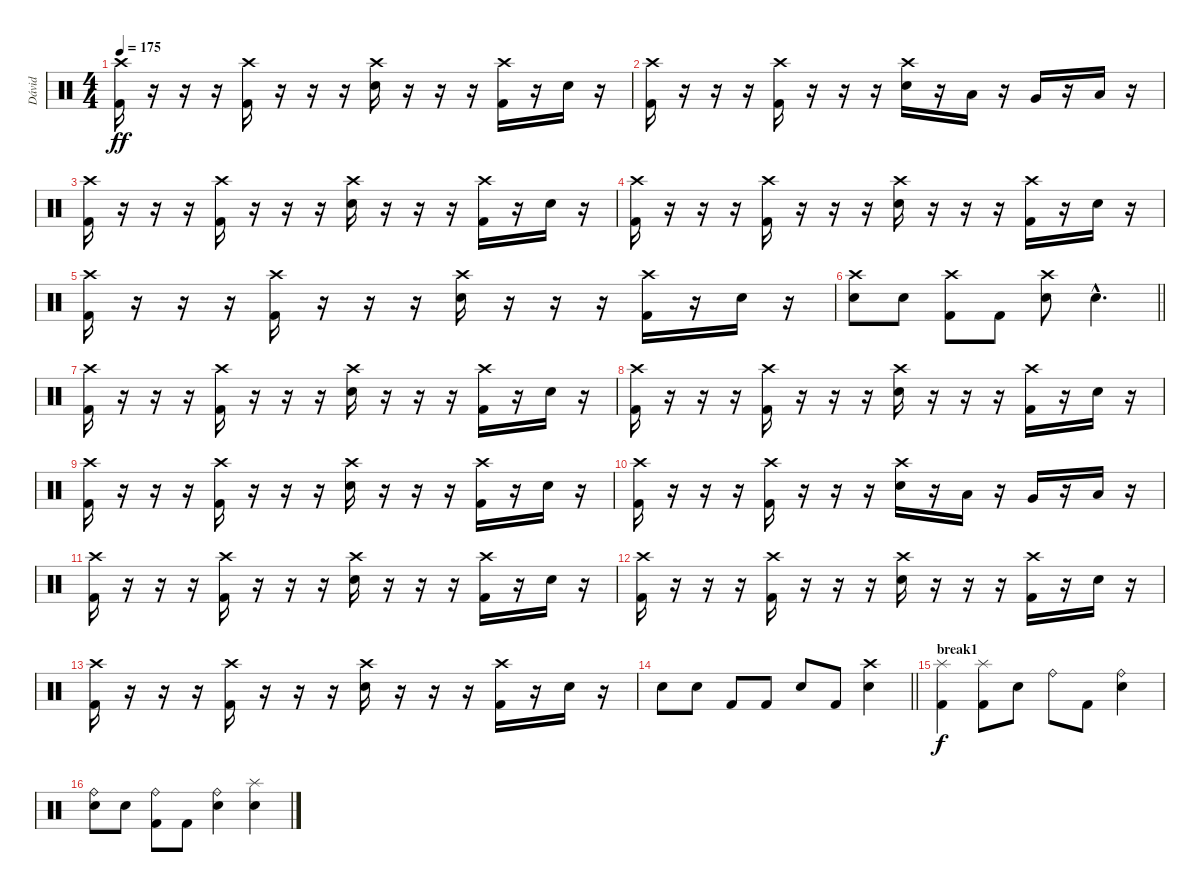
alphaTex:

\track ("Dávid" "Dávid") {instrument percussion}
\staff {score}
\articulation defaults
\ts (4 4)
\tempo 175
\clef neutral
\ks c
("Crash high (hit)" "Kick (hit) 2").16{dy ff} r.16 r.16 r.16 ("Crash high (hit)" "Kick (hit) 2").16 r.16 r.16 r.16 ("Crash high (hit)" "Electric Snare (hit)").16 r.16 r.16 r.16 ("Crash high (hit)" "Kick (hit) 2").16 r.16 "Electric Snare (hit)".16 r.16 |
("Crash high (hit)" "Kick (hit) 2").16 r.16 r.16 r.16 ("Crash high (hit)" "Kick (hit) 2").16 r.16 r.16 r.16 ("Crash high (hit)" "Electric Snare (hit)").16 r.16 "Low Tom (hit)".16 r.16 "Very Low Tom (hit)".16 r.16 "Low Floor Tom (hit)".16 r.16 |
("Crash high (hit)" "Kick (hit) 2").16 r.16 r.16 r.16 ("Crash high (hit)" "Kick (hit) 2").16 r.16 r.16 r.16 ("Crash high (hit)" "Electric Snare (hit)").16 r.16 r.16 r.16 ("Crash high (hit)" "Kick (hit) 2").16 r.16 "Electric Snare (hit)".16 r.16 |
("Crash high (hit)" "Kick (hit) 2").16 r.16 r.16 r.16 ("Crash high (hit)" "Kick (hit) 2").16 r.16 r.16 r.16 ("Crash high (hit)" "Electric Snare (hit)").16 r.16 r.16 r.16 ("Crash high (hit)" "Kick (hit) 2").16 r.16 "Electric Snare (hit)".16 r.16 |
("Crash high (hit)" "Kick (hit) 2").16 r.16 r.16 r.16 ("Crash high (hit)" "Kick (hit) 2").16 r.16 r.16 r.16 ("Crash high (hit)" "Electric Snare (hit)").16 r.16 r.16 r.16 ("Crash high (hit)" "Kick (hit) 2").16 r.16 "Electric Snare (hit)".16 r.16 |
\barLineRight lightlight
("Crash high (hit)" "Electric Snare (hit)").8 "Electric Snare (hit)".8 ("Crash high (hit)" "Kick (hit) 2").8 "Kick (hit) 2".8 ("Crash high (hit)" "Electric Snare (hit)").8 "Electric Snare (hit)"{hac}.4{d} |
("Crash high (hit)" "Kick (hit) 2").16 r.16 r.16 r.16 ("Crash high (hit)" "Kick (hit) 2").16 r.16 r.16 r.16 ("Crash high (hit)" "Electric Snare (hit)").16 r.16 r.16 r.16 ("Crash high (hit)" "Kick (hit) 2").16 r.16 "Electric Snare (hit)".16 r.16 |
("Crash high (hit)" "Kick (hit) 2").16 r.16 r.16 r.16 ("Crash high (hit)" "Kick (hit) 2").16 r.16 r.16 r.16 ("Crash high (hit)" "Electric Snare (hit)").16 r.16 r.16 r.16 ("Crash high (hit)" "Kick (hit) 2").16 r.16 "Electric Snare (hit)".16 r.16 |
("Crash high (hit)" "Kick (hit) 2").16 r.16 r.16 r.16 ("Crash high (hit)" "Kick (hit) 2").16 r.16 r.16 r.16 ("Crash high (hit)" "Electric Snare (hit)").16 r.16 r.16 r.16 ("Crash high (hit)" "Kick (hit) 2").16 r.16 "Electric Snare (hit)".16 r.16 |
("Crash high (hit)" "Kick (hit) 2").16 r.16 r.16 r.16 ("Crash high (hit)" "Kick (hit) 2").16 r.16 r.16 r.16 ("Crash high (hit)" "Electric Snare (hit)").16 r.16 "Low Tom (hit)".16 r.16 "Very Low Tom (hit)".16 r.16 "Low Floor Tom (hit)".16 r.16 |
("Crash high (hit)" "Kick (hit) 2").16 r.16 r.16 r.16 ("Crash high (hit)" "Kick (hit) 2").16 r.16 r.16 r.16 ("Crash high (hit)" "Electric Snare (hit)").16 r.16 r.16 r.16 ("Crash high (hit)" "Kick (hit) 2").16 r.16 "Electric Snare (hit)".16 r.16 |
("Crash high (hit)" "Kick (hit) 2").16 r.16 r.16 r.16 ("Crash high (hit)" "Kick (hit) 2").16 r.16 r.16 r.16 ("Crash high (hit)" "Electric Snare (hit)").16 r.16 r.16 r.16 ("Crash high (hit)" "Kick (hit) 2").16 r.16 "Electric Snare (hit)".16 r.16 |
("Crash high (hit)" "Kick (hit) 2").16 r.16 r.16 r.16 ("Crash high (hit)" "Kick (hit) 2").16 r.16 r.16 r.16 ("Crash high (hit)" "Electric Snare (hit)").16 r.16 r.16 r.16 ("Crash high (hit)" "Kick (hit) 2").16 r.16 "Electric Snare (hit)".16 r.16 |
\barLineRight lightlight "Electric Snare (hit)".8 "Electric Snare (hit)".8 "Kick (hit) 2".8 "Kick (hit) 2".8 "Electric Snare (hit)".8 "Kick (hit) 2".8
("Crash high (hit)" "Electric Snare (hit)").4 |
\section ("" "break1")
("Splash (hit)" "Kick (hit) 2").4{dy f} ("Splash (hit)" "Kick (hit) 2").8 "Electric Snare (hit)".8 "Ride (bell)".8 "Kick (hit) 2".8 ("Ride (bell)" "Electric Snare (hit)").4 |
("Ride (bell)" "Electric Snare (hit)").8 "Electric Snare (hit)".8 ("Ride (bell)" "Kick (hit) 2").8 "Kick (hit) 2".8 ("Ride (bell)" "Electric Snare (hit)").4 ("Splash (hit)" "Electric Snare (hit)").4
